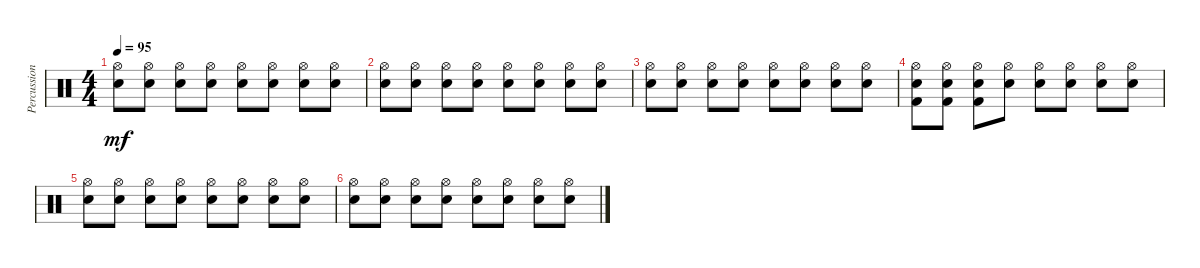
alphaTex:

\track ("Percussion" "Percussion") {instrument percussion}
\staff {score}
\articulation defaults
\ts (4 4)
\tempo 95
\clef neutral
\ks c
("Hi-Hat (open)" "Electric Snare (hit)").8{dy mf} ("Hi-Hat (open)" "Electric Snare (hit)").8 ("Hi-Hat (open)" "Electric Snare (hit)").8 ("Hi-Hat (open)" "Electric Snare (hit)").8 ("Hi-Hat (open)" "Electric Snare (hit)").8 ("Hi-Hat (open)" "Electric Snare (hit)").8 ("Hi-Hat (open)" "Electric Snare (hit)").8 ("Hi-Hat (open)" "Electric Snare (hit)").8 |
("Hi-Hat (open)" "Electric Snare (hit)").8 ("Hi-Hat (open)" "Electric Snare (hit)").8 ("Hi-Hat (open)" "Electric Snare (hit)").8 ("Hi-Hat (open)" "Electric Snare (hit)").8 ("Hi-Hat (open)" "Electric Snare (hit)").8 ("Hi-Hat (open)" "Electric Snare (hit)").8 ("Hi-Hat (open)" "Electric Snare (hit)").8 ("Hi-Hat (open)" "Electric Snare (hit)").8 |
("Hi-Hat (open)" "Electric Snare (hit)").8 ("Hi-Hat (open)" "Electric Snare (hit)").8 ("Hi-Hat (open)" "Electric Snare (hit)").8 ("Hi-Hat (open)" "Electric Snare (hit)").8 ("Hi-Hat (open)" "Electric Snare (hit)").8 ("Hi-Hat (open)" "Electric Snare (hit)").8 ("Hi-Hat (open)" "Electric Snare (hit)").8 ("Hi-Hat (open)" "Electric Snare (hit)").8 |
("Hi-Hat (open)" "Electric Snare (hit)" "Kick (hit) 2").8 ("Hi-Hat (open)" "Electric Snare (hit)" "Kick (hit) 2").8 ("Hi-Hat (open)" "Electric Snare (hit)" "Kick (hit) 2").8 ("Hi-Hat (open)" "Electric Snare (hit)").8 ("Hi-Hat (open)" "Electric Snare (hit)").8 ("Hi-Hat (open)" "Electric Snare (hit)").8 ("Hi-Hat (open)" "Electric Snare (hit)").8 ("Hi-Hat (open)" "Electric Snare (hit)").8 |
("Hi-Hat (open)" "Electric Snare (hit)").8 ("Hi-Hat (open)" "Electric Snare (hit)").8 ("Hi-Hat (open)" "Electric Snare (hit)").8 ("Hi-Hat (open)" "Electric Snare (hit)").8 ("Hi-Hat (open)" "Electric Snare (hit)").8 ("Hi-Hat (open)" "Electric Snare (hit)").8 ("Hi-Hat (open)" "Electric Snare (hit)").8 ("Hi-Hat (open)" "Electric Snare (hit)").8 |
("Hi-Hat (open)" "Electric Snare (hit)").8 ("Hi-Hat (open)" "Electric Snare (hit)").8 ("Hi-Hat (open)" "Electric Snare (hit)").8 ("Hi-Hat (open)" "Electric Snare (hit)").8 ("Hi-Hat (open)" "Electric Snare (hit)").8 ("Hi-Hat (open)" "Electric Snare (hit)").8 ("Hi-Hat (open)" "Electric Snare (hit)").8 ("Hi-Hat (open)" "Electric Snare (hit)").8
